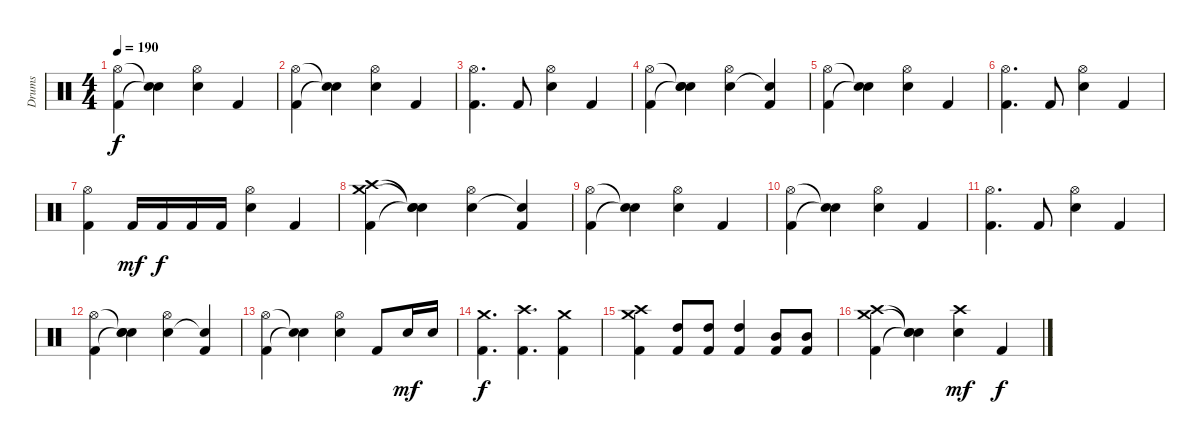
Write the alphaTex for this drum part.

\track ("Drums" "Drums") {instrument percussion}
\staff {score}
\articulation defaults
\ts (4 4)
\tempo 190
\clef neutral
\ks c
("Hi-Hat (open)" "Kick (hit) 2").4{dy f} ("Snare (hit)"{t} "Snare (hit)"{t}).4 ("Hi-Hat (open)" "Snare (hit) 2").4 "Kick (hit) 2".4 |
("Hi-Hat (open)" "Kick (hit) 2").4 ("Snare (hit)"{t} "Snare (hit)"{t}).4 ("Hi-Hat (open)" "Snare (hit) 2").4 "Kick (hit) 2".4 |
("Hi-Hat (open)" "Kick (hit) 2").4{d} "Kick (hit) 2".8 ("Hi-Hat (open)" "Snare (hit) 2").4 "Kick (hit) 2".4 |
("Hi-Hat (open)" "Kick (hit) 2").4 ("Snare (hit)"{t} "Snare (hit)"{t} "Snare (hit)").4 ("Hi-Hat (open)" "Snare (hit) 2").4 ("Kick (hit) 2" "Snare (hit)"{t}).4 |
("Hi-Hat (open)" "Kick (hit) 2").4 ("Snare (hit)"{t} "Snare (hit)"{t}).4 ("Hi-Hat (open)" "Snare (hit) 2").4 "Kick (hit) 2".4 |
("Hi-Hat (open)" "Kick (hit) 2").4{d} "Kick (hit) 2".8 ("Hi-Hat (open)" "Snare (hit) 2").4 "Kick (hit) 2".4 |
("Hi-Hat (open)" "Kick (hit) 2").4 "Kick (hit) 2".16{dy mf} "Kick (hit) 2".16{dy f} "Kick (hit) 2".16 "Kick (hit) 2".16 ("Hi-Hat (open)" "Snare (hit) 2").4 "Kick (hit) 2".4 |
("Crash high (hit)" "Crash medium (hit)" "Kick (hit) 2").4 ("Snare (hit)"{t} "Snare (hit)"{t} "Snare (hit)"{t}).4 ("Hi-Hat (open)" "Snare (hit) 2").4 ("Kick (hit) 2" "Snare (hit)"{t}).4 |
("Hi-Hat (open)" "Kick (hit) 2").4 ("Snare (hit)"{t} "Snare (hit)"{t}).4 ("Hi-Hat (open)" "Snare (hit) 2").4 "Kick (hit) 2".4 |
("Hi-Hat (open)" "Kick (hit) 2").4 ("Snare (hit)"{t} "Snare (hit)"{t}).4 ("Hi-Hat (open)" "Snare (hit) 2").4 "Kick (hit) 2".4 |
("Hi-Hat (open)" "Kick (hit) 2").4{d} "Kick (hit) 2".8 ("Hi-Hat (open)" "Snare (hit) 2").4 "Kick (hit) 2".4 |
("Hi-Hat (open)" "Kick (hit) 2").4 ("Snare (hit)"{t} "Snare (hit)"{t} "Snare (hit)").4 ("Hi-Hat (open)" "Snare (hit) 2").4 ("Kick (hit) 2" "Snare (hit)"{t}).4 |
("Hi-Hat (open)" "Kick (hit) 2").4 ("Snare (hit)"{t} "Snare (hit)"{t}).4 ("Hi-Hat (open)" "Snare (hit) 2").4 "Kick (hit) 2".8 "Snare (hit) 2".16{dy mf} "Snare (hit) 2".16 |
("Crash medium (hit)" "Kick (hit) 2").4{d dy f} ("Crash high (hit)" "Kick (hit) 2").4{d} ("Crash medium (hit)" "Kick (hit) 2").4 |
("Crash medium (hit)" "Crash high (hit)" "Kick (hit) 2").4 ("High Tom (hit)" "Kick (hit) 2").8 ("High Tom (hit)" "Kick (hit) 2").8 ("High Tom (hit)" "Kick (hit) 2").4 ("Mid Tom (hit)" "Kick (hit) 2").8 ("Mid Tom (hit)" "Kick (hit) 2").8 |
("Crash high (hit)" "Crash medium (hit)" "Kick (hit) 2").4 ("Snare (hit)"{t} "Snare (hit)"{t} "Snare (hit)"{t}).4 ("Crash high (hit)" "Snare (hit) 2").4{dy mf} "Kick (hit) 2".4{dy f}
